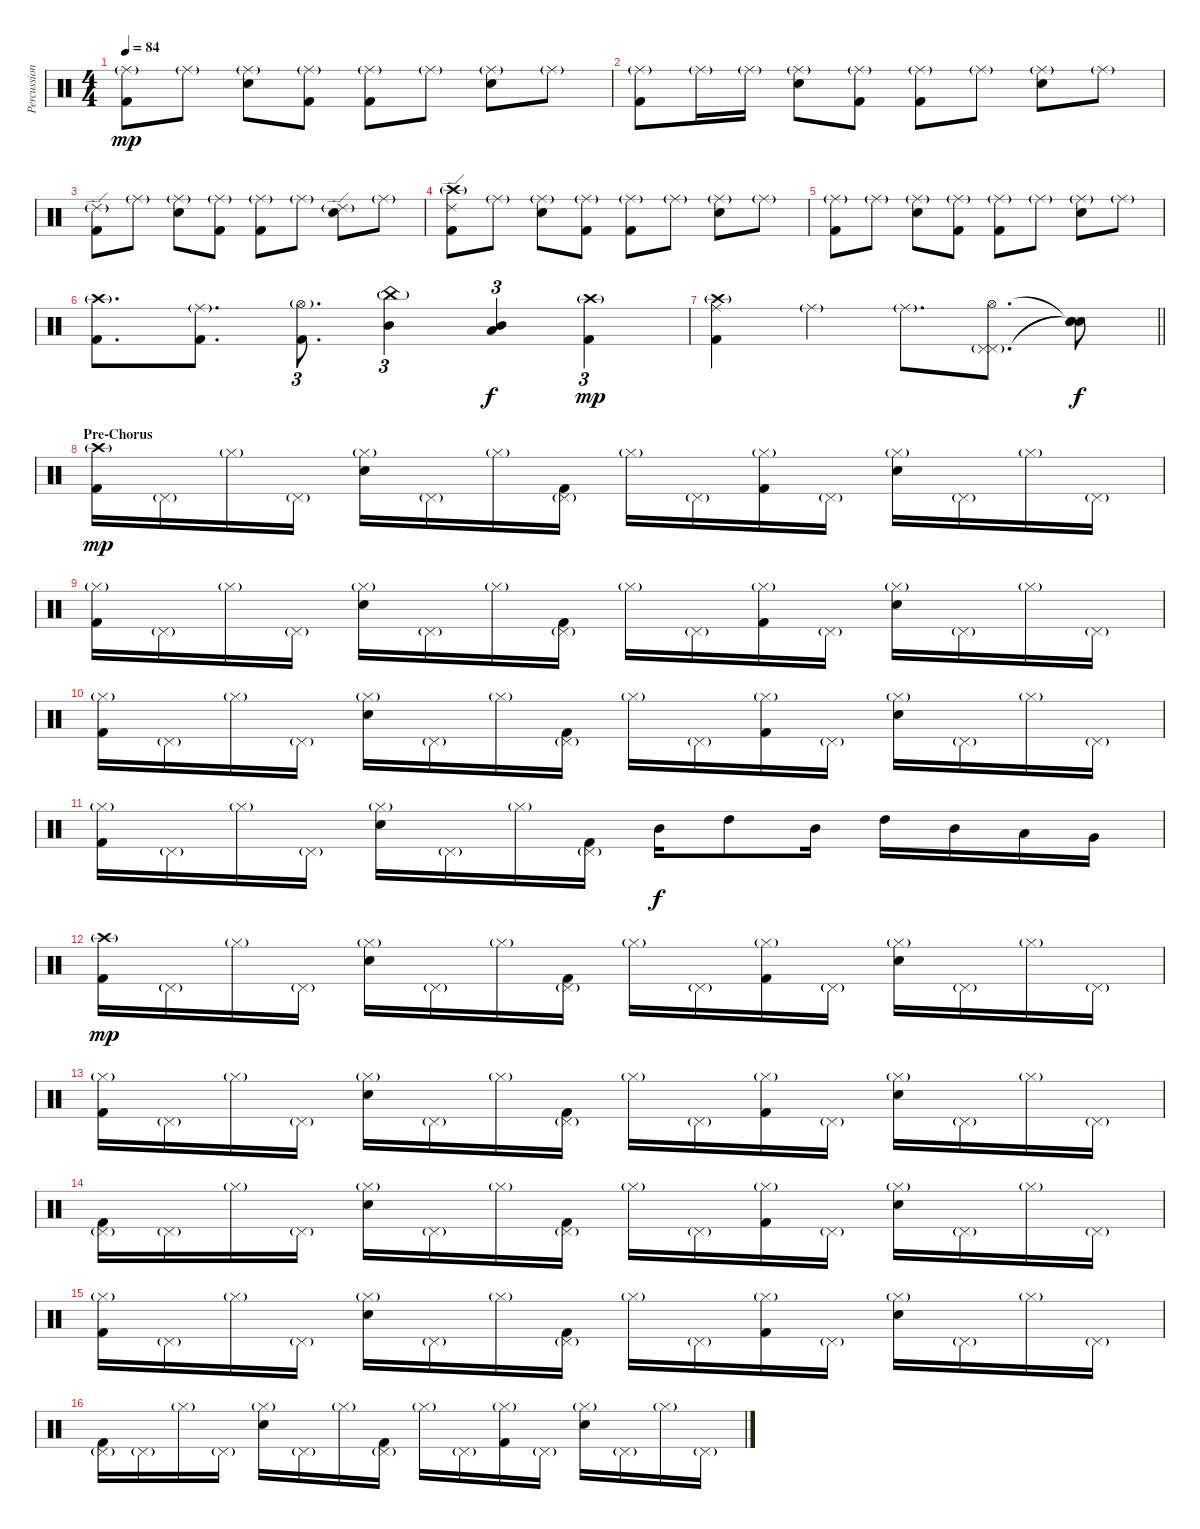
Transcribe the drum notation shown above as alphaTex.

\track ("Percussion" "Percussion") {instrument percussion}
\staff {score}
\articulation defaults
\ts (4 4)
\tempo 84
\clef neutral
\ks c
("Ride (middle)"{g} "Kick (hit) 2").8{dy mp} "Ride (middle)"{g}.8 ("Ride (middle)"{g} "Electric Snare (hit)").8 ("Ride (middle)"{g} "Kick (hit) 2").8 ("Ride (middle)"{g} "Kick (hit) 2").8 "Ride (middle)"{g}.8 ("Ride (middle)"{g} "Electric Snare (hit)").8 "Ride (middle)"{g}.8 |
("Ride (middle)"{g} "Kick (hit) 2").8 "Ride (middle)"{g}.16 "Ride (middle)"{g}.16 ("Ride (middle)"{g} "Electric Snare (hit)").8 ("Ride (middle)"{g} "Kick (hit) 2").8 ("Ride (middle)"{g} "Kick (hit) 2").8 "Ride (middle)"{g}.8 ("Ride (middle)"{g} "Electric Snare (hit)").8 "Ride (middle)"{g}.8 |
("Ride (edge) 2"{g} "Kick (hit) 2").8 "Ride (middle)"{g}.8 ("Ride (middle)"{g} "Electric Snare (hit)").8 ("Ride (middle)"{g} "Kick (hit) 2").8 ("Ride (middle)"{g} "Kick (hit) 2").8 "Ride (middle)"{g}.8 ("Ride (edge) 2"{g} "Electric Snare (hit)").8 "Ride (middle)"{g}.8 |
("Ride (edge) 2" "Crash high (hit)"{g} "Kick (hit) 2").8 "Ride (middle)"{g}.8 ("Ride (middle)"{g} "Electric Snare (hit)").8 ("Ride (middle)"{g} "Kick (hit) 2").8 ("Ride (middle)"{g} "Kick (hit) 2").8 "Ride (middle)"{g}.8 ("Ride (middle)"{g} "Electric Snare (hit)").8 "Ride (middle)"{g}.8 |
("Ride (middle)"{g} "Kick (hit) 2").8 "Ride (middle)"{g}.8 ("Ride (middle)"{g} "Electric Snare (hit)").8 ("Ride (middle)"{g} "Kick (hit) 2").8 ("Ride (middle)"{g} "Kick (hit) 2").8 "Ride (middle)"{g}.8 ("Ride (middle)"{g} "Electric Snare (hit)").8 "Ride (middle)"{g}.8 |
("Crash high (hit)"{g} "Kick (hit) 2").8{d} ("Ride (middle)"{g} "Kick (hit) 2").8{d} ("Hi-Hat (open)"{g} "Kick (hit) 2").8{d tu (3 2)} ("China (hit)"{g} "Mid Tom (hit)").4{tu (3 2)} ("Low Tom (hit)" "Mid Tom (hit)").4{tu (3 2) dy f} ("Crash high (hit)"{g} "Kick (hit) 2").4{tu (3 2) dy mp} |
\barLineRight lightlight
("Ride (middle)" "Crash high (hit)"{g} "Kick (hit) 2").4 "Ride (middle)"{g}.4 "Ride (middle)"{g}.8{d} ("Hi-Hat (open)" "Pedal Hi-Hat (hit)" "Pedal Hi-Hat (hit)"{g}).8{d bd 480} ("Snare (hit)"{t} "Snare (hit)"{t} "Snare (hit)"{t}).8{dy f} |
\section ("" "Pre-Chorus")
("Crash high (hit)"{g} "Kick (hit) 2").16{dy mp} "Pedal Hi-Hat (hit)"{g}.16 "Hi-Hat (closed)"{g}.16 "Pedal Hi-Hat (hit)"{g}.16 ("Hi-Hat (closed)"{g} "Electric Snare (hit)").16 "Pedal Hi-Hat (hit)"{g}.16 "Hi-Hat (closed)"{g}.16 ("Pedal Hi-Hat (hit)"{g} "Kick (hit) 2").16 "Hi-Hat (closed)"{g}.16 "Pedal Hi-Hat (hit)"{g}.16 ("Hi-Hat (closed)"{g} "Kick (hit) 2").16 "Pedal Hi-Hat (hit)"{g}.16 ("Hi-Hat (closed)"{g} "Electric Snare (hit)").16 "Pedal Hi-Hat (hit)"{g}.16 "Hi-Hat (closed)"{g}.16 "Pedal Hi-Hat (hit)"{g}.16 |
("Hi-Hat (closed)"{g} "Kick (hit) 2").16 "Pedal Hi-Hat (hit)"{g}.16 "Hi-Hat (closed)"{g}.16 "Pedal Hi-Hat (hit)"{g}.16 ("Hi-Hat (closed)"{g} "Electric Snare (hit)").16 "Pedal Hi-Hat (hit)"{g}.16 "Hi-Hat (closed)"{g}.16 ("Pedal Hi-Hat (hit)"{g} "Kick (hit) 2").16 "Hi-Hat (closed)"{g}.16 "Pedal Hi-Hat (hit)"{g}.16 ("Hi-Hat (closed)"{g} "Kick (hit) 2").16 "Pedal Hi-Hat (hit)"{g}.16 ("Hi-Hat (closed)"{g} "Electric Snare (hit)").16 "Pedal Hi-Hat (hit)"{g}.16 "Hi-Hat (closed)"{g}.16 "Pedal Hi-Hat (hit)"{g}.16 |
("Hi-Hat (closed)"{g} "Kick (hit) 2").16 "Pedal Hi-Hat (hit)"{g}.16 "Hi-Hat (closed)"{g}.16 "Pedal Hi-Hat (hit)"{g}.16 ("Hi-Hat (closed)"{g} "Electric Snare (hit)").16 "Pedal Hi-Hat (hit)"{g}.16 "Hi-Hat (closed)"{g}.16 ("Pedal Hi-Hat (hit)"{g} "Kick (hit) 2").16 "Hi-Hat (closed)"{g}.16 "Pedal Hi-Hat (hit)"{g}.16 ("Hi-Hat (closed)"{g} "Kick (hit) 2").16 "Pedal Hi-Hat (hit)"{g}.16 ("Hi-Hat (closed)"{g} "Electric Snare (hit)").16 "Pedal Hi-Hat (hit)"{g}.16 "Hi-Hat (closed)"{g}.16 "Pedal Hi-Hat (hit)"{g}.16 |
("Hi-Hat (closed)"{g} "Kick (hit) 2").16 "Pedal Hi-Hat (hit)"{g}.16 "Hi-Hat (closed)"{g}.16 "Pedal Hi-Hat (hit)"{g}.16 ("Hi-Hat (closed)"{g} "Electric Snare (hit)").16 "Pedal Hi-Hat (hit)"{g}.16 "Hi-Hat (closed)"{g}.16 ("Pedal Hi-Hat (hit)"{g} "Kick (hit) 2").16 "Mid Tom (hit)".16{dy f} "High Tom (hit)".8 "Mid Tom (hit)".16 "High Tom (hit)".16 "Mid Tom (hit)".16 "Low Tom (hit)".16 "Very Low Tom (hit)".16 |
("Crash high (hit)"{g} "Kick (hit) 2").16{dy mp} "Pedal Hi-Hat (hit)"{g}.16 "Hi-Hat (closed)"{g}.16 "Pedal Hi-Hat (hit)"{g}.16 ("Hi-Hat (closed)"{g} "Electric Snare (hit)").16 "Pedal Hi-Hat (hit)"{g}.16 "Hi-Hat (closed)"{g}.16 ("Pedal Hi-Hat (hit)"{g} "Kick (hit) 2").16 "Hi-Hat (closed)"{g}.16 "Pedal Hi-Hat (hit)"{g}.16 ("Hi-Hat (closed)"{g} "Kick (hit) 2").16 "Pedal Hi-Hat (hit)"{g}.16 ("Hi-Hat (closed)"{g} "Electric Snare (hit)").16 "Pedal Hi-Hat (hit)"{g}.16 "Hi-Hat (closed)"{g}.16 "Pedal Hi-Hat (hit)"{g}.16 |
("Hi-Hat (closed)"{g} "Kick (hit) 2").16 "Pedal Hi-Hat (hit)"{g}.16 "Hi-Hat (closed)"{g}.16 "Pedal Hi-Hat (hit)"{g}.16 ("Hi-Hat (closed)"{g} "Electric Snare (hit)").16 "Pedal Hi-Hat (hit)"{g}.16 "Hi-Hat (closed)"{g}.16 ("Pedal Hi-Hat (hit)"{g} "Kick (hit) 2").16 "Hi-Hat (closed)"{g}.16 "Pedal Hi-Hat (hit)"{g}.16 ("Hi-Hat (closed)"{g} "Kick (hit) 2").16 "Pedal Hi-Hat (hit)"{g}.16 ("Hi-Hat (closed)"{g} "Electric Snare (hit)").16 "Pedal Hi-Hat (hit)"{g}.16 "Hi-Hat (closed)"{g}.16 "Pedal Hi-Hat (hit)"{g}.16 |
("Pedal Hi-Hat (hit)"{g} "Kick (hit) 2").16 "Pedal Hi-Hat (hit)"{g}.16 "Hi-Hat (closed)"{g}.16 "Pedal Hi-Hat (hit)"{g}.16 ("Hi-Hat (closed)"{g} "Electric Snare (hit)").16 "Pedal Hi-Hat (hit)"{g}.16 "Hi-Hat (closed)"{g}.16 ("Pedal Hi-Hat (hit)"{g} "Kick (hit) 2").16 "Hi-Hat (closed)"{g}.16 "Pedal Hi-Hat (hit)"{g}.16 ("Hi-Hat (closed)"{g} "Kick (hit) 2").16 "Pedal Hi-Hat (hit)"{g}.16 ("Hi-Hat (closed)"{g} "Electric Snare (hit)").16 "Pedal Hi-Hat (hit)"{g}.16 "Hi-Hat (closed)"{g}.16 "Pedal Hi-Hat (hit)"{g}.16 |
("Hi-Hat (closed)"{g} "Kick (hit) 2").16 "Pedal Hi-Hat (hit)"{g}.16 "Hi-Hat (closed)"{g}.16 "Pedal Hi-Hat (hit)"{g}.16 ("Hi-Hat (closed)"{g} "Electric Snare (hit)").16 "Pedal Hi-Hat (hit)"{g}.16 "Hi-Hat (closed)"{g}.16 ("Pedal Hi-Hat (hit)"{g} "Kick (hit) 2").16 "Hi-Hat (closed)"{g}.16 "Pedal Hi-Hat (hit)"{g}.16 ("Hi-Hat (closed)"{g} "Kick (hit) 2").16 "Pedal Hi-Hat (hit)"{g}.16 ("Hi-Hat (closed)"{g} "Electric Snare (hit)").16 "Pedal Hi-Hat (hit)"{g}.16 "Hi-Hat (closed)"{g}.16 "Pedal Hi-Hat (hit)"{g}.16 |
("Pedal Hi-Hat (hit)"{g} "Kick (hit) 2").16 "Pedal Hi-Hat (hit)"{g}.16 "Hi-Hat (closed)"{g}.16 "Pedal Hi-Hat (hit)"{g}.16 ("Hi-Hat (closed)"{g} "Electric Snare (hit)").16 "Pedal Hi-Hat (hit)"{g}.16 "Hi-Hat (closed)"{g}.16 ("Pedal Hi-Hat (hit)"{g} "Kick (hit) 2").16 "Hi-Hat (closed)"{g}.16 "Pedal Hi-Hat (hit)"{g}.16 ("Hi-Hat (closed)"{g} "Kick (hit) 2").16 "Pedal Hi-Hat (hit)"{g}.16 ("Hi-Hat (closed)"{g} "Electric Snare (hit)").16 "Pedal Hi-Hat (hit)"{g}.16 "Hi-Hat (closed)"{g}.16 "Pedal Hi-Hat (hit)"{g}.16
